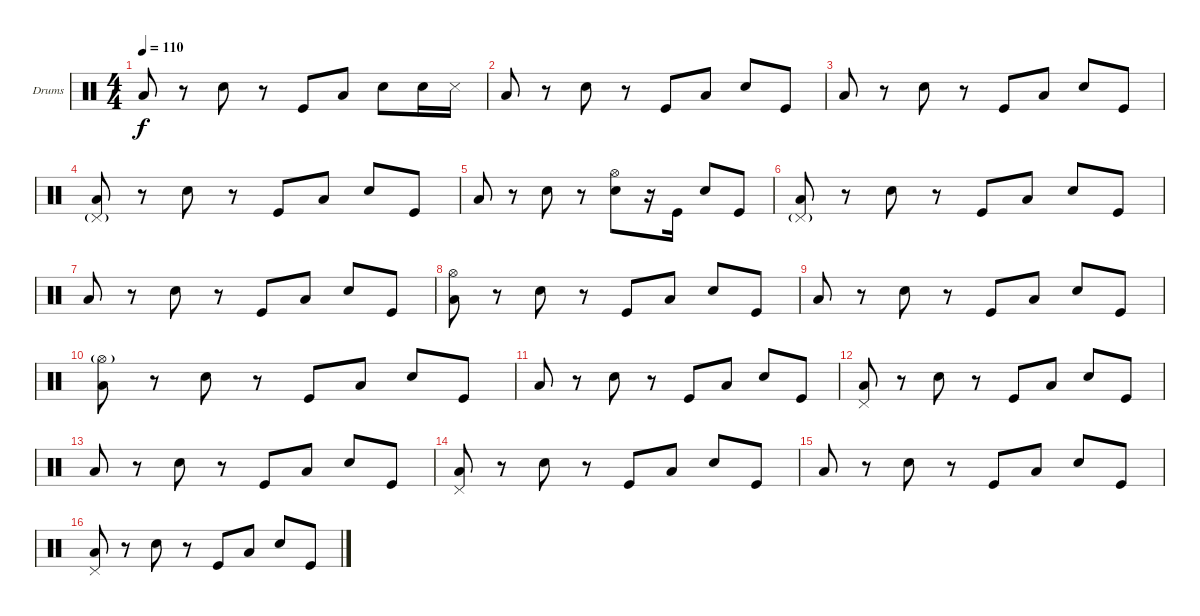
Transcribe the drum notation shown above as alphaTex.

\bracketExtendMode groupsimilarinstruments
\firstSystemTrackNameOrientation horizontal
\otherSystemsTrackNameOrientation horizontal
\track ("Drumkit" "Drums") {instrument percussion}
\staff {score}
\articulation defaults
\ts (4 4)
\tempo 110
\clef neutral
\ks c "Low Tom (hit)".8{dy f}
r.8 "Snare (hit) 2".8 r.8 "Kick (hit)".8 "Low Tom (hit)".8 "Snare (hit) 2".8 "Snare (hit) 2".16 "Snare (side stick) 3".16 |
"Low Tom (hit)".8 r.8 "Snare (hit) 2".8 r.8 "Kick (hit)".8 "Low Tom (hit)".8 "Snare (hit) 2".8 "Kick (hit)".8 |
"Low Tom (hit)".8 r.8 "Snare (hit) 2".8 r.8 "Kick (hit)".8 "Low Tom (hit)".8 "Snare (hit) 2".8 "Kick (hit)".8 |
("Pedal Hi-Hat (hit)"{g} "Low Tom (hit)").8 r.8 "Snare (hit) 2".8 r.8 "Kick (hit)".8 "Low Tom (hit)".8 "Snare (hit) 2".8 "Kick (hit)".8 |
"Low Tom (hit)".8 r.8 "Snare (hit) 2".8 r.8 ("Hi-Hat (open)" "Snare (hit) 2").8 r.16 "Kick (hit)".16 "Snare (hit) 2".8 "Kick (hit)".8 |
("Pedal Hi-Hat (hit)"{g} "Low Tom (hit)").8 r.8 "Snare (hit) 2".8 r.8 "Kick (hit)".8 "Low Tom (hit)".8 "Snare (hit) 2".8 "Kick (hit)".8 |
"Low Tom (hit)".8 r.8 "Snare (hit) 2".8 r.8 "Kick (hit)".8 "Low Tom (hit)".8 "Snare (hit) 2".8 "Kick (hit)".8 |
("Hi-Hat (open)" "Low Tom (hit)").8 r.8 "Snare (hit) 2".8 r.8 "Kick (hit)".8 "Low Tom (hit)".8 "Snare (hit) 2".8 "Kick (hit)".8 |
"Low Tom (hit)".8 r.8 "Snare (hit) 2".8 r.8 "Kick (hit)".8 "Low Tom (hit)".8 "Snare (hit) 2".8 "Kick (hit)".8 |
("Hi-Hat (open)"{g} "Low Tom (hit)").8 r.8 "Snare (hit) 2".8 r.8 "Kick (hit)".8 "Low Tom (hit)".8 "Snare (hit) 2".8 "Kick (hit)".8 |
"Low Tom (hit)".8 r.8 "Snare (hit) 2".8 r.8 "Kick (hit)".8 "Low Tom (hit)".8 "Snare (hit) 2".8 "Kick (hit)".8 |
("Pedal Hi-Hat (hit)" "Low Tom (hit)").8 r.8 "Snare (hit) 2".8 r.8 "Kick (hit)".8 "Low Tom (hit)".8 "Snare (hit) 2".8 "Kick (hit)".8 |
"Low Tom (hit)".8 r.8 "Snare (hit) 2".8 r.8 "Kick (hit)".8 "Low Tom (hit)".8 "Snare (hit) 2".8 "Kick (hit)".8 |
("Pedal Hi-Hat (hit)" "Low Tom (hit)").8 r.8 "Snare (hit) 2".8 r.8 "Kick (hit)".8 "Low Tom (hit)".8 "Snare (hit) 2".8 "Kick (hit)".8 |
"Low Tom (hit)".8 r.8 "Snare (hit) 2".8 r.8 "Kick (hit)".8 "Low Tom (hit)".8 "Snare (hit) 2".8 "Kick (hit)".8 |
("Pedal Hi-Hat (hit)" "Low Tom (hit)").8 r.8 "Snare (hit) 2".8 r.8 "Kick (hit)".8 "Low Tom (hit)".8 "Snare (hit) 2".8 "Kick (hit)".8
